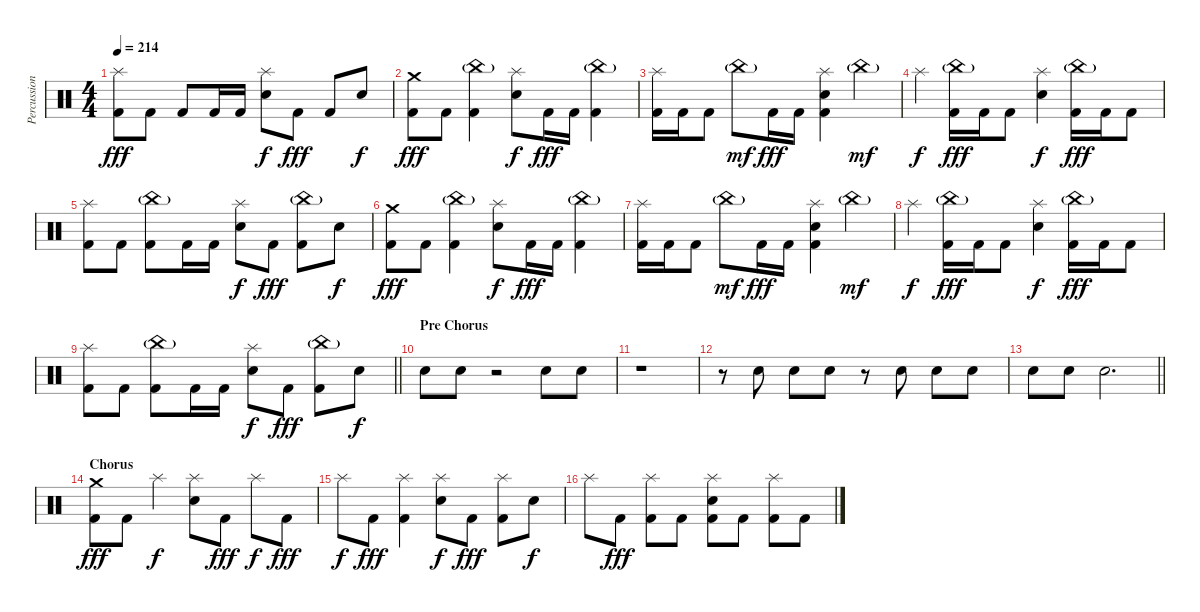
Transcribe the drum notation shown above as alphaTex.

\track ("Percussion" "Percussion") {instrument percussion}
\staff {score}
\articulation defaults
\ts (4 4)
\tempo 214
\clef neutral
\ks c
("Splash (hit)" "Kick (hit) 2").8{dy fff} "Kick (hit) 2".8 "Kick (hit) 2".8 "Kick (hit) 2".16 "Kick (hit) 2".16 ("Splash (hit)" "Electric Snare (hit)").8{dy f} "Kick (hit) 2".8{dy fff} "Kick (hit) 2".8 "Electric Snare (hit)".8{dy f} |
("Crash medium (hit)" "Kick (hit) 2").8{dy fff} "Kick (hit) 2".8 ("China (hit)"{g} "Kick (hit) 2").4 ("Splash (hit)" "Electric Snare (hit)").8{dy f} "Kick (hit) 2".16{dy fff} "Kick (hit) 2".16 ("China (hit)"{g} "Kick (hit) 2").4 |
("Splash (hit)" "Kick (hit) 2").16 "Kick (hit) 2".16 "Kick (hit) 2".8 "China (hit)"{g}.8{dy mf} "Kick (hit) 2".16{dy fff} "Kick (hit) 2".16 ("Splash (hit)" "Electric Snare (hit)" "Kick (hit) 2").4 "China (hit)"{g}.4{dy mf} |
"Splash (hit)".4{dy f} ("China (hit)"{g} "Kick (hit) 2").16{dy fff} "Kick (hit) 2".16 "Kick (hit) 2".8 ("Splash (hit)" "Electric Snare (hit)").4{dy f} ("China (hit)"{g} "Kick (hit) 2").16{dy fff} "Kick (hit) 2".16 "Kick (hit) 2".8 |
("Splash (hit)" "Kick (hit) 2").8 "Kick (hit) 2".8 ("China (hit)"{g} "Kick (hit) 2").8 "Kick (hit) 2".16 "Kick (hit) 2".16 ("Splash (hit)" "Electric Snare (hit)").8{dy f} "Kick (hit) 2".8{dy fff} ("China (hit)"{g} "Kick (hit) 2").8 "Electric Snare (hit)".8{dy f} |
("Crash medium (hit)" "Kick (hit) 2").8{dy fff} "Kick (hit) 2".8 ("China (hit)"{g} "Kick (hit) 2").4 ("Splash (hit)" "Electric Snare (hit)").8{dy f} "Kick (hit) 2".16{dy fff} "Kick (hit) 2".16 ("China (hit)"{g} "Kick (hit) 2").4 |
("Splash (hit)" "Kick (hit) 2").16 "Kick (hit) 2".16 "Kick (hit) 2".8 "China (hit)"{g}.8{dy mf} "Kick (hit) 2".16{dy fff} "Kick (hit) 2".16 ("Splash (hit)" "Electric Snare (hit)" "Kick (hit) 2").4 "China (hit)"{g}.4{dy mf} |
"Splash (hit)".4{dy f} ("China (hit)"{g} "Kick (hit) 2").16{dy fff} "Kick (hit) 2".16 "Kick (hit) 2".8 ("Splash (hit)" "Electric Snare (hit)").4{dy f} ("China (hit)"{g} "Kick (hit) 2").16{dy fff} "Kick (hit) 2".16 "Kick (hit) 2".8 |
\barLineRight lightlight
("Splash (hit)" "Kick (hit) 2").8 "Kick (hit) 2".8 ("China (hit)"{g} "Kick (hit) 2").8 "Kick (hit) 2".16 "Kick (hit) 2".16 ("Splash (hit)" "Electric Snare (hit)").8{dy f} "Kick (hit) 2".8{dy fff} ("China (hit)"{g} "Kick (hit) 2").8 "Electric Snare (hit)".8{dy f} |
\section ("" "Pre Chorus")
"Electric Snare (hit)".8 "Electric Snare (hit)".8 r.2 "Electric Snare (hit)".8 "Electric Snare (hit)".8 |
r.1 |
r.8 "Electric Snare (hit)".8 "Electric Snare (hit)".8 "Electric Snare (hit)".8 r.8 "Electric Snare (hit)".8 "Electric Snare (hit)".8 "Electric Snare (hit)".8 |
\barLineRight lightlight "Electric Snare (hit)".8 "Electric Snare (hit)".8 "Electric Snare (hit)".2{d}
|
\section ("" "Chorus")
("Crash medium (hit)" "Kick (hit) 2").8{dy fff} "Kick (hit) 2".8 "Splash (hit)".4{dy f} ("Splash (hit)" "Electric Snare (hit)").8 "Kick (hit) 2".8{dy fff} "Splash (hit)".8{dy f} "Kick (hit) 2".8{dy fff} |
"Splash (hit)".8{dy f} "Kick (hit) 2".8{dy fff} ("Splash (hit)" "Kick (hit) 2").4 ("Splash (hit)" "Electric Snare (hit)").8{dy f} "Kick (hit) 2".8{dy fff} ("Splash (hit)" "Kick (hit) 2").8 "Electric Snare (hit)".8{dy f} |
"Splash (hit)".8 "Kick (hit) 2".8{dy fff} ("Splash (hit)" "Kick (hit) 2").8 "Kick (hit) 2".8 ("Splash (hit)" "Electric Snare (hit)" "Kick (hit) 2").8 "Kick (hit) 2".8 ("Splash (hit)" "Kick (hit) 2").8 "Kick (hit) 2".8
